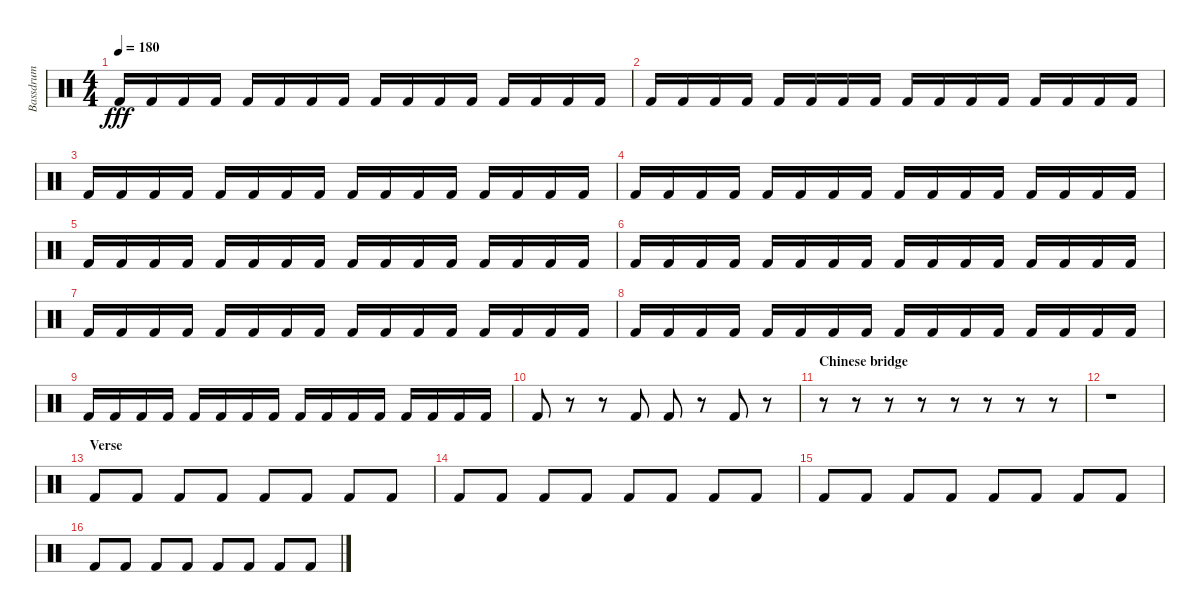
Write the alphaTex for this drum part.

\track ("Bassdrum" "Bassdrum") {instrument percussion}
\staff {score}
\articulation defaults
\ts (4 4)
\tempo 180
\clef neutral
\ks c "Kick (hit) 2".16{dy fff} "Kick (hit) 2".16 "Kick (hit) 2".16 "Kick (hit) 2".16 "Kick (hit) 2".16 "Kick (hit) 2".16 "Kick (hit) 2".16 "Kick (hit) 2".16 "Kick (hit) 2".16 "Kick (hit) 2".16 "Kick (hit) 2".16 "Kick (hit) 2".16 "Kick (hit) 2".16 "Kick (hit) 2".16 "Kick (hit) 2".16 "Kick (hit) 2".16
|
"Kick (hit) 2".16 "Kick (hit) 2".16 "Kick (hit) 2".16 "Kick (hit) 2".16 "Kick (hit) 2".16 "Kick (hit) 2".16 "Kick (hit) 2".16 "Kick (hit) 2".16 "Kick (hit) 2".16 "Kick (hit) 2".16 "Kick (hit) 2".16 "Kick (hit) 2".16 "Kick (hit) 2".16 "Kick (hit) 2".16 "Kick (hit) 2".16 "Kick (hit) 2".16 |
"Kick (hit) 2".16 "Kick (hit) 2".16 "Kick (hit) 2".16 "Kick (hit) 2".16 "Kick (hit) 2".16 "Kick (hit) 2".16 "Kick (hit) 2".16 "Kick (hit) 2".16 "Kick (hit) 2".16 "Kick (hit) 2".16 "Kick (hit) 2".16 "Kick (hit) 2".16 "Kick (hit) 2".16 "Kick (hit) 2".16 "Kick (hit) 2".16 "Kick (hit) 2".16 |
"Kick (hit) 2".16 "Kick (hit) 2".16 "Kick (hit) 2".16 "Kick (hit) 2".16 "Kick (hit) 2".16 "Kick (hit) 2".16 "Kick (hit) 2".16 "Kick (hit) 2".16 "Kick (hit) 2".16 "Kick (hit) 2".16 "Kick (hit) 2".16 "Kick (hit) 2".16 "Kick (hit) 2".16 "Kick (hit) 2".16 "Kick (hit) 2".16 "Kick (hit) 2".16 |
"Kick (hit) 2".16 "Kick (hit) 2".16 "Kick (hit) 2".16 "Kick (hit) 2".16 "Kick (hit) 2".16 "Kick (hit) 2".16 "Kick (hit) 2".16 "Kick (hit) 2".16 "Kick (hit) 2".16 "Kick (hit) 2".16 "Kick (hit) 2".16 "Kick (hit) 2".16 "Kick (hit) 2".16 "Kick (hit) 2".16 "Kick (hit) 2".16 "Kick (hit) 2".16 |
"Kick (hit) 2".16 "Kick (hit) 2".16 "Kick (hit) 2".16 "Kick (hit) 2".16 "Kick (hit) 2".16 "Kick (hit) 2".16 "Kick (hit) 2".16 "Kick (hit) 2".16 "Kick (hit) 2".16 "Kick (hit) 2".16 "Kick (hit) 2".16 "Kick (hit) 2".16 "Kick (hit) 2".16 "Kick (hit) 2".16 "Kick (hit) 2".16 "Kick (hit) 2".16 |
"Kick (hit) 2".16 "Kick (hit) 2".16 "Kick (hit) 2".16 "Kick (hit) 2".16 "Kick (hit) 2".16 "Kick (hit) 2".16 "Kick (hit) 2".16 "Kick (hit) 2".16 "Kick (hit) 2".16 "Kick (hit) 2".16 "Kick (hit) 2".16 "Kick (hit) 2".16 "Kick (hit) 2".16 "Kick (hit) 2".16 "Kick (hit) 2".16 "Kick (hit) 2".16 |
"Kick (hit) 2".16 "Kick (hit) 2".16 "Kick (hit) 2".16 "Kick (hit) 2".16 "Kick (hit) 2".16 "Kick (hit) 2".16 "Kick (hit) 2".16 "Kick (hit) 2".16 "Kick (hit) 2".16 "Kick (hit) 2".16 "Kick (hit) 2".16 "Kick (hit) 2".16 "Kick (hit) 2".16 "Kick (hit) 2".16 "Kick (hit) 2".16 "Kick (hit) 2".16 |
"Kick (hit) 2".16 "Kick (hit) 2".16 "Kick (hit) 2".16 "Kick (hit) 2".16 "Kick (hit) 2".16 "Kick (hit) 2".16 "Kick (hit) 2".16 "Kick (hit) 2".16 "Kick (hit) 2".16 "Kick (hit) 2".16 "Kick (hit) 2".16 "Kick (hit) 2".16 "Kick (hit) 2".16 "Kick (hit) 2".16 "Kick (hit) 2".16 "Kick (hit) 2".16 |
"Kick (hit) 2".8 r.8 r.8 "Kick (hit) 2".8 "Kick (hit) 2".8 r.8 "Kick (hit) 2".8 r.8 |
\section ("" "Chinese bridge")
r.8 r.8 r.8 r.8 r.8 r.8 r.8 r.8 |
r.1 |
\section ("" "Verse")
"Kick (hit) 2".8 "Kick (hit) 2".8 "Kick (hit) 2".8 "Kick (hit) 2".8 "Kick (hit) 2".8 "Kick (hit) 2".8 "Kick (hit) 2".8 "Kick (hit) 2".8 |
"Kick (hit) 2".8 "Kick (hit) 2".8 "Kick (hit) 2".8 "Kick (hit) 2".8 "Kick (hit) 2".8 "Kick (hit) 2".8 "Kick (hit) 2".8 "Kick (hit) 2".8 |
"Kick (hit) 2".8 "Kick (hit) 2".8 "Kick (hit) 2".8 "Kick (hit) 2".8 "Kick (hit) 2".8 "Kick (hit) 2".8 "Kick (hit) 2".8 "Kick (hit) 2".8 |
"Kick (hit) 2".8 "Kick (hit) 2".8 "Kick (hit) 2".8 "Kick (hit) 2".8 "Kick (hit) 2".8 "Kick (hit) 2".8 "Kick (hit) 2".8 "Kick (hit) 2".8
